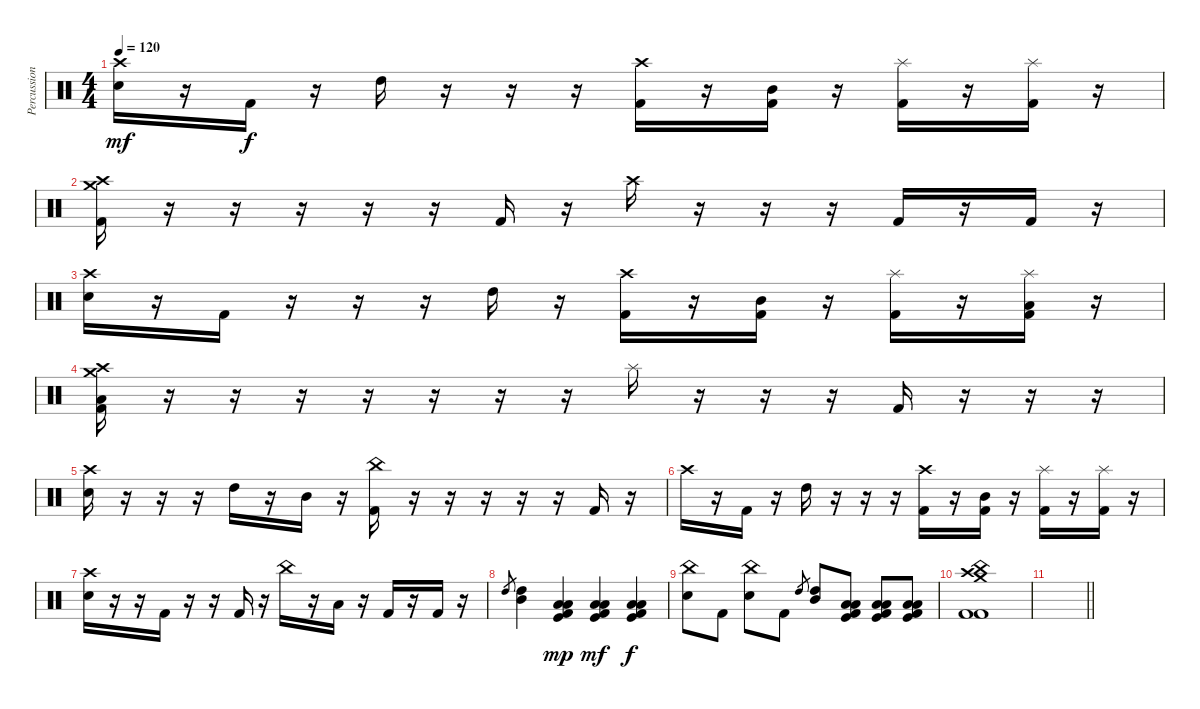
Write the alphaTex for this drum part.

\track ("Percussion" "Percussion") {instrument percussion}
\staff {score}
\articulation defaults
\ts (4 4)
\tempo 120
\clef neutral
\ks c
("Crash high (hit)" "Electric Snare (hit)").16{dy mf} r.16 "Kick (hit) 2".16{dy f} r.16 "High Tom (hit)".16 r.16 r.16 r.16 ("Crash high (hit)" "Kick (hit) 2").16 r.16 ("Mid Tom (hit)" "Kick (hit) 2").16 r.16 ("Splash (hit)" "Kick (hit) 2").16 r.16 ("Splash (hit)" "Kick (hit) 2").16 r.16 |
("Crash high (hit)" "Crash medium (hit)" "Kick (hit) 2").16{volume 13} r.16 r.16 r.16 r.16 r.16 "Kick (hit) 2".16 r.16 "Crash high (hit)".16 r.16 r.16 r.16 "Kick (hit) 2".16 r.16 "Kick (hit) 2".16 r.16 |
("Crash high (hit)" "Electric Snare (hit)").16 r.16 "Kick (hit) 2".16 r.16 r.16 r.16 "High Tom (hit)".16 r.16 ("Crash high (hit)" "Kick (hit) 2").16 r.16 ("Mid Tom (hit)" "Kick (hit) 2").16 r.16 ("Splash (hit)" "Kick (hit) 2").16 r.16 ("Splash (hit)" "Low Tom (hit)" "Kick (hit) 2").16 r.16 |
("Crash high (hit)" "Crash medium (hit)" "Low Floor Tom (hit)" "Kick (hit) 2").16 r.16 r.16 r.16 r.16 r.16 r.16 r.16 "Splash (hit)".16 r.16 r.16 r.16 "Kick (hit) 2".16 r.16 r.16 r.16 |
("Crash high (hit)" "Electric Snare (hit)").16 r.16 r.16 r.16 "High Tom (hit)".16 r.16 "Mid Tom (hit)".16 r.16 ("China (hit)" "Kick (hit) 2").16 r.16 r.16 r.16 r.16 r.16 "Kick (hit) 2".16 r.16 |
"Crash high (hit)".16 r.16 "Kick (hit) 2".16 r.16 "High Tom (hit)".16 r.16 r.16 r.16 ("Crash high (hit)" "Kick (hit) 2").16 r.16 ("Mid Tom (hit)" "Kick (hit) 2").16 r.16 ("Splash (hit)" "Kick (hit) 2").16 r.16 ("Splash (hit)" "Kick (hit) 2").16 r.16 |
("Crash high (hit)" "Electric Snare (hit)").16 r.16 r.16 "Kick (hit) 2".16 r.16 r.16 "Kick (hit) 2".16 r.16 "China (hit)".16 r.16 "Low Tom (hit)".16 r.16 "Kick (hit) 2".16 r.16 "Kick (hit) 2".16 r.16 |
"High Tom (hit)".8{gr} ("High Tom (hit)" "Mid Tom (hit)").4 ("Kick (hit)" "Low Tom (hit)" "Low Floor Tom (hit)" "Kick (hit) 2").4{dy mp} ("Kick (hit)" "Low Tom (hit)" "Low Floor Tom (hit)" "Kick (hit) 2").4{dy mf} ("Kick (hit)" "Low Tom (hit)" "Low Floor Tom (hit)" "Kick (hit) 2").4{dy f} |
("China (hit)" "Electric Snare (hit)").8 "Kick (hit) 2".8 ("China (hit)" "Electric Snare (hit)").8 "Kick (hit) 2".8 "High Tom (hit)".8{gr} ("High Tom (hit)" "Mid Tom (hit)").8 ("Kick (hit)" "Low Tom (hit)" "Low Floor Tom (hit)" "Kick (hit) 2").8 ("Kick (hit)" "Low Tom (hit)" "Low Floor Tom (hit)" "Kick (hit) 2").8 ("Kick (hit)" "Low Tom (hit)" "Low Floor Tom (hit)" "Kick (hit) 2").8 |
("Kick (hit) 2" "Crash high (hit)" "China (hit)" "Crash medium (hit)" "Kick (hit) 2").1 |
\barLineRight lightlight
